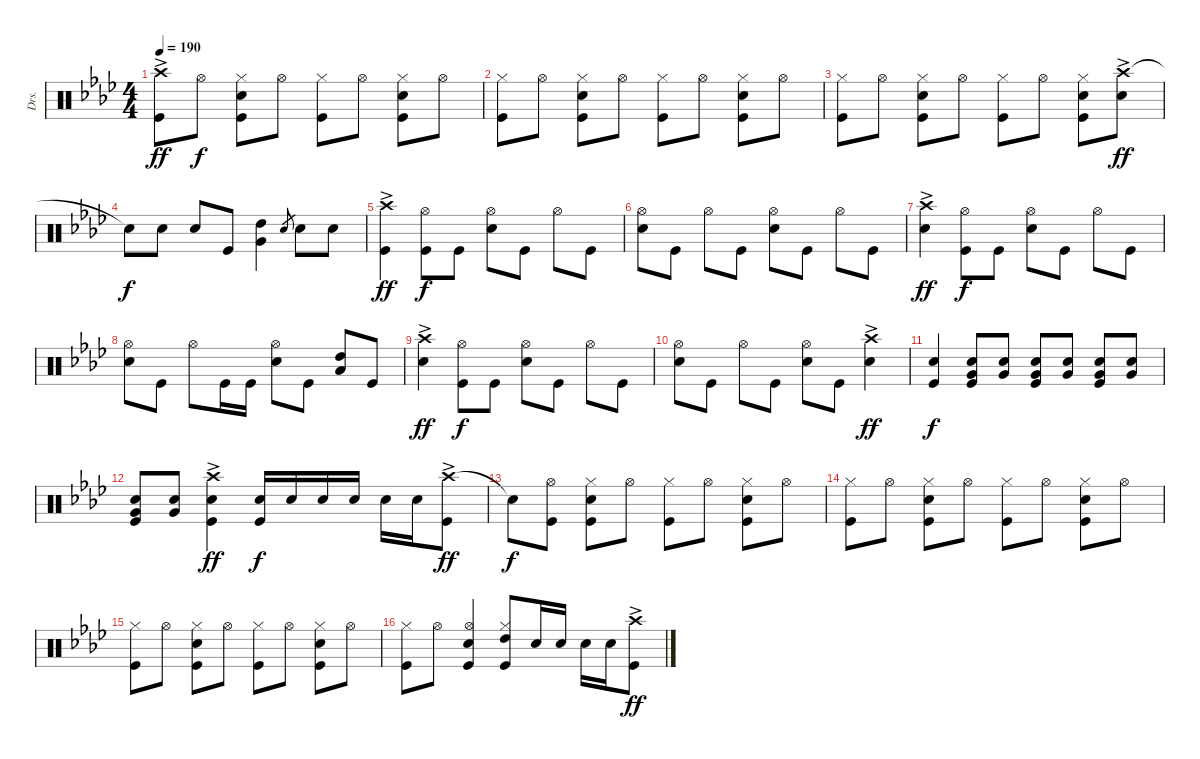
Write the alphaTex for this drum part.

\track ("Drs." "Drs.") {instrument percussion}
\staff {score}
\articulation defaults
\ts (4 4)
\tempo 190
\clef neutral
\ks ab
("Crash high (hit)"{ac} "Kick (hit)").8{dy ff} "Hi-Hat (open)".8{dy f} ("Hi-Hat (closed)" "Snare (hit) 2" "Kick (hit)").8 "Hi-Hat (open)".8 ("Hi-Hat (closed)" "Kick (hit)").8 "Hi-Hat (open)".8 ("Hi-Hat (closed)" "Snare (hit) 2" "Kick (hit)").8 "Hi-Hat (open)".8 |
("Hi-Hat (closed)" "Kick (hit)").8 "Hi-Hat (open)".8 ("Hi-Hat (closed)" "Snare (hit) 2" "Kick (hit)").8 "Hi-Hat (open)".8 ("Hi-Hat (closed)" "Kick (hit)").8 "Hi-Hat (open)".8 ("Hi-Hat (closed)" "Snare (hit) 2" "Kick (hit)").8 "Hi-Hat (open)".8 |
("Hi-Hat (closed)" "Kick (hit)").8 "Hi-Hat (open)".8 ("Hi-Hat (closed)" "Snare (hit) 2" "Kick (hit)").8 "Hi-Hat (open)".8 ("Hi-Hat (closed)" "Kick (hit)").8 "Hi-Hat (open)".8 ("Hi-Hat (closed)" "Snare (hit) 2" "Kick (hit)").8 ("Crash high (hit)"{ac} "Snare (hit) 2").8{dy ff} |
"Snare (hit)"{t}.8{dy f} "Snare (hit) 2".8 "Snare (hit) 2".8 "Kick (hit)".8 ("High Tom (hit)" "Very Low Tom (hit)").4 "Snare (hit) 2".8{gr} "Snare (hit) 2".8 "Snare (hit) 2".8 |
("Crash high (hit)"{ac} "Kick (hit)").4{dy ff} ("Hi-Hat (open)" "Kick (hit)").8{dy f} "Kick (hit)".8 ("Hi-Hat (open)" "Snare (hit) 2").8 "Kick (hit)".8 "Hi-Hat (open)".8 "Kick (hit)".8 |
("Hi-Hat (open)" "Snare (hit) 2").8 "Kick (hit)".8 "Hi-Hat (open)".8 "Kick (hit)".8 ("Hi-Hat (open)" "Snare (hit) 2").8 "Kick (hit)".8 "Hi-Hat (open)".8 "Kick (hit)".8 |
("Crash high (hit)"{ac} "Snare (hit) 2").4{dy ff} ("Hi-Hat (open)" "Kick (hit)").8{dy f} "Kick (hit)".8 ("Hi-Hat (open)" "Snare (hit) 2").8 "Kick (hit)".8 "Hi-Hat (open)".8 "Kick (hit)".8 |
("Hi-Hat (open)" "Snare (hit) 2").8 "Kick (hit)".8 "Hi-Hat (open)".8 "Kick (hit)".16 "Kick (hit)".16 ("Hi-Hat (open)" "Snare (hit) 2").8 "Kick (hit)".8 ("High Tom (hit)" "Low Tom (hit)").8 "Kick (hit)".8 |
("Crash high (hit)"{ac} "Snare (hit) 2").4{dy ff} ("Hi-Hat (open)" "Kick (hit)").8{dy f} "Kick (hit)".8 ("Hi-Hat (open)" "Snare (hit) 2").8 "Kick (hit)".8 "Hi-Hat (open)".8 "Kick (hit)".8 |
("Hi-Hat (open)" "Snare (hit) 2").8 "Kick (hit)".8 "Hi-Hat (open)".8 "Kick (hit)".8 ("Hi-Hat (open)" "Snare (hit) 2").8 "Kick (hit)".8 ("Crash high (hit)"{ac} "Snare (hit) 2").4{dy ff} |
("Snare (hit) 2" "Kick (hit)").4{dy f} ("Snare (hit) 2" "Very Low Tom (hit)" "Kick (hit)").8 ("Snare (hit) 2" "Very Low Tom (hit)").8 ("Snare (hit) 2" "Very Low Tom (hit)" "Kick (hit)").8 ("Snare (hit) 2" "Very Low Tom (hit)").8 ("Snare (hit) 2" "Very Low Tom (hit)" "Kick (hit)").8 ("Snare (hit) 2" "Very Low Tom (hit)").8 |
("Snare (hit) 2" "Very Low Tom (hit)" "Kick (hit)").8 ("Snare (hit) 2" "Very Low Tom (hit)").8 ("Crash high (hit)"{ac} "Snare (hit) 2" "Kick (hit)").4{dy ff} ("Snare (hit) 2" "Kick (hit)").16{dy f} "Snare (hit) 2".16 "Snare (hit) 2".16 "Snare (hit) 2".16 "Snare (hit) 2".16 "Snare (hit) 2".16 ("Crash high (hit)"{ac} "Kick (hit)").8{dy ff} |
"Snare (hit)"{t}.8{dy f} ("Hi-Hat (open)" "Kick (hit)").8 ("Hi-Hat (closed)" "Snare (hit) 2" "Kick (hit)").8 "Hi-Hat (open)".8 ("Hi-Hat (closed)" "Kick (hit)").8 "Hi-Hat (open)".8 ("Hi-Hat (closed)" "Snare (hit) 2" "Kick (hit)").8 "Hi-Hat (open)".8 |
("Hi-Hat (closed)" "Kick (hit)").8 "Hi-Hat (open)".8 ("Hi-Hat (closed)" "Snare (hit) 2" "Kick (hit)").8 "Hi-Hat (open)".8 ("Hi-Hat (closed)" "Kick (hit)").8 "Hi-Hat (open)".8 ("Hi-Hat (closed)" "Snare (hit) 2" "Kick (hit)").8 "Hi-Hat (open)".8 |
("Hi-Hat (closed)" "Kick (hit)").8 "Hi-Hat (open)".8 ("Hi-Hat (closed)" "Snare (hit) 2" "Kick (hit)").8 "Hi-Hat (open)".8 ("Hi-Hat (closed)" "Kick (hit)").8 "Hi-Hat (open)".8 ("Hi-Hat (closed)" "Snare (hit) 2" "Kick (hit)").8 "Hi-Hat (open)".8 |
("Hi-Hat (closed)" "Kick (hit)").8 "Hi-Hat (open)".8 ("Hi-Hat (open)" "Snare (hit) 2" "Kick (hit)").4 ("Hi-Hat (closed)" "High Tom (hit)" "Kick (hit)").8 "Snare (hit) 2".16 "Snare (hit) 2".16 "Snare (hit) 2".16 "Snare (hit) 2".16 ("Crash high (hit)"{ac} "Kick (hit)").8{dy ff}
